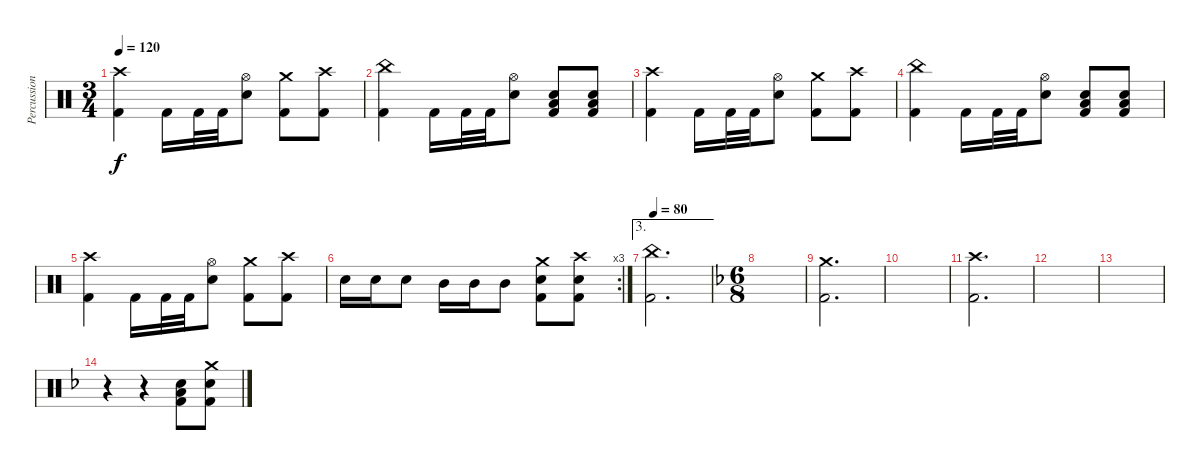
\track ("Percussion" "Percussion") {instrument percussion}
\staff {score}
\articulation defaults
\ts (3 4)
\tempo 120
\clef neutral
\ks c
("Crash high (hit)" "Kick (hit) 2").4{dy f} "Kick (hit) 2".16 "Kick (hit) 2".32 "Kick (hit) 2".32 ("Hi-Hat (open)" "Snare (hit) 2").8 ("Crash medium (hit)" "Kick (hit) 2").8 ("Crash high (hit)" "Kick (hit) 2").8 |
("China (hit)" "Kick (hit) 2").4 "Kick (hit) 2".16 "Kick (hit) 2".32 "Kick (hit) 2".32 ("Hi-Hat (open)" "Snare (hit) 2").8 ("Snare (hit) 2" "Low Floor Tom (hit)" "Kick (hit) 2").8 ("Snare (hit) 2" "Low Floor Tom (hit)" "Kick (hit) 2").8 |
("Crash high (hit)" "Kick (hit) 2").4 "Kick (hit) 2".16 "Kick (hit) 2".32 "Kick (hit) 2".32 ("Hi-Hat (open)" "Snare (hit) 2").8 ("Crash medium (hit)" "Kick (hit) 2").8 ("Crash high (hit)" "Kick (hit) 2").8 |
("China (hit)" "Kick (hit) 2").4 "Kick (hit) 2".16 "Kick (hit) 2".32 "Kick (hit) 2".32 ("Hi-Hat (open)" "Snare (hit) 2").8 ("Snare (hit) 2" "Low Floor Tom (hit)" "Kick (hit) 2").8 ("Snare (hit) 2" "Low Floor Tom (hit)" "Kick (hit) 2").8 |
("Crash high (hit)" "Kick (hit) 2").4 "Kick (hit) 2".16 "Kick (hit) 2".32 "Kick (hit) 2".32 ("Hi-Hat (open)" "Snare (hit) 2").8 ("Crash medium (hit)" "Kick (hit) 2").8 ("Crash high (hit)" "Kick (hit) 2").8 |
\rc 3 "Snare (hit) 2".16 "Snare (hit) 2".16 "Snare (hit) 2".8 "Mid Tom (hit)".16 "Mid Tom (hit)".16 "Mid Tom (hit)".8
("Crash medium (hit)" "Snare (hit) 2" "Kick (hit) 2").8 ("Crash high (hit)" "Snare (hit) 2" "Kick (hit) 2").8 |
\ae 3
\tempo 80
("China (hit)" "Kick (hit) 2").2{d} |
\ts (6 8)
\ks f
|
("Crash medium (hit)" "Kick (hit) 2").2{d} |
|
("Crash high (hit)" "Kick (hit) 2").2{d} |
|
|
r.4 r.4 ("Snare (hit) 2" "Low Floor Tom (hit)" "Kick (hit) 2").8 ("Crash medium (hit)" "Snare (hit) 2" "Kick (hit) 2").8
